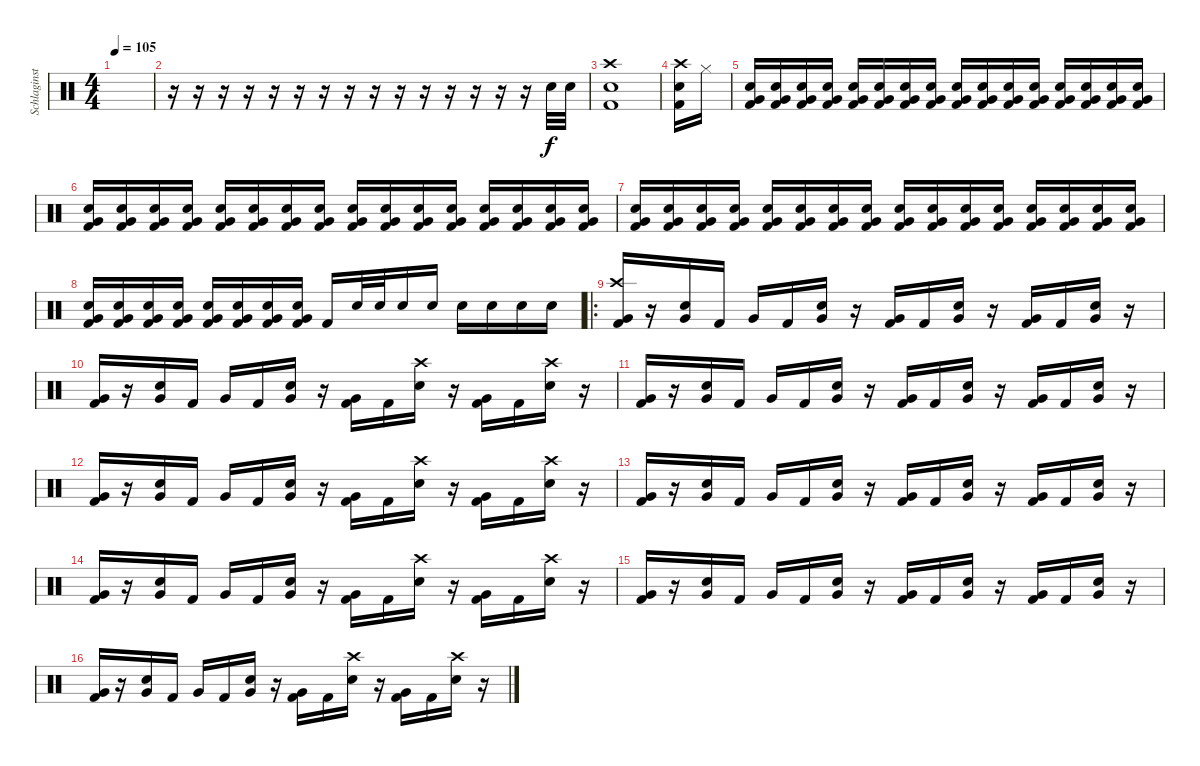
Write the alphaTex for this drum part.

\track ("Schlaginstrumente - Auswahl" "Schlaginst") {instrument percussion}
\staff {score}
\articulation defaults
\ts (4 4)
\tempo 105
\clef neutral
\ks c
|
r.16 r.16 r.16 r.16 r.16 r.16 r.16 r.16 r.16 r.16 r.16 r.16 r.16 r.16 r.16 "Electric Snare (hit)".32 "Electric Snare (hit)".32 |
("Kick (hit) 2" "Crash high (hit)" "Electric Snare (hit)").1 |
("Crash high (hit)" "Kick (hit) 2" "Electric Snare (hit)").16 "Hi-Hat (closed)".16 |
("Electric Snare (hit)" "Kick (hit) 2" "Very Low Tom (hit)").16 ("Electric Snare (hit)" "Kick (hit) 2" "Very Low Tom (hit)").16 ("Electric Snare (hit)" "Kick (hit) 2" "Very Low Tom (hit)").16 ("Electric Snare (hit)" "Kick (hit) 2" "Very Low Tom (hit)").16 ("Electric Snare (hit)" "Kick (hit) 2" "Very Low Tom (hit)").16 ("Electric Snare (hit)" "Kick (hit) 2" "Very Low Tom (hit)").16 ("Electric Snare (hit)" "Kick (hit) 2" "Very Low Tom (hit)").16 ("Electric Snare (hit)" "Kick (hit) 2" "Very Low Tom (hit)").16 ("Electric Snare (hit)" "Kick (hit) 2" "Very Low Tom (hit)").16 ("Electric Snare (hit)" "Kick (hit) 2" "Very Low Tom (hit)").16 ("Electric Snare (hit)" "Kick (hit) 2" "Very Low Tom (hit)").16 ("Electric Snare (hit)" "Kick (hit) 2" "Very Low Tom (hit)").16 ("Electric Snare (hit)" "Kick (hit) 2" "Very Low Tom (hit)").16 ("Electric Snare (hit)" "Kick (hit) 2" "Very Low Tom (hit)").16 ("Electric Snare (hit)" "Kick (hit) 2" "Very Low Tom (hit)").16 ("Electric Snare (hit)" "Kick (hit) 2" "Very Low Tom (hit)").16 |
("Electric Snare (hit)" "Kick (hit) 2" "Very Low Tom (hit)").16 ("Electric Snare (hit)" "Kick (hit) 2" "Very Low Tom (hit)").16 ("Electric Snare (hit)" "Kick (hit) 2" "Very Low Tom (hit)").16 ("Electric Snare (hit)" "Kick (hit) 2" "Very Low Tom (hit)").16 ("Electric Snare (hit)" "Kick (hit) 2" "Very Low Tom (hit)").16 ("Electric Snare (hit)" "Kick (hit) 2" "Very Low Tom (hit)").16 ("Electric Snare (hit)" "Kick (hit) 2" "Very Low Tom (hit)").16 ("Electric Snare (hit)" "Kick (hit) 2" "Very Low Tom (hit)").16 ("Electric Snare (hit)" "Kick (hit) 2" "Very Low Tom (hit)").16 ("Electric Snare (hit)" "Kick (hit) 2" "Very Low Tom (hit)").16 ("Electric Snare (hit)" "Kick (hit) 2" "Very Low Tom (hit)").16 ("Electric Snare (hit)" "Kick (hit) 2" "Very Low Tom (hit)").16 ("Electric Snare (hit)" "Kick (hit) 2" "Very Low Tom (hit)").16 ("Electric Snare (hit)" "Kick (hit) 2" "Very Low Tom (hit)").16 ("Electric Snare (hit)" "Kick (hit) 2" "Very Low Tom (hit)").16 ("Electric Snare (hit)" "Kick (hit) 2" "Very Low Tom (hit)").16 |
("Electric Snare (hit)" "Kick (hit) 2" "Very Low Tom (hit)").16 ("Electric Snare (hit)" "Kick (hit) 2" "Very Low Tom (hit)").16 ("Electric Snare (hit)" "Kick (hit) 2" "Very Low Tom (hit)").16 ("Electric Snare (hit)" "Kick (hit) 2" "Very Low Tom (hit)").16 ("Electric Snare (hit)" "Kick (hit) 2" "Very Low Tom (hit)").16 ("Electric Snare (hit)" "Kick (hit) 2" "Very Low Tom (hit)").16 ("Electric Snare (hit)" "Kick (hit) 2" "Very Low Tom (hit)").16 ("Electric Snare (hit)" "Kick (hit) 2" "Very Low Tom (hit)").16 ("Electric Snare (hit)" "Kick (hit) 2" "Very Low Tom (hit)").16 ("Electric Snare (hit)" "Kick (hit) 2" "Very Low Tom (hit)").16 ("Electric Snare (hit)" "Kick (hit) 2" "Very Low Tom (hit)").16 ("Electric Snare (hit)" "Kick (hit) 2" "Very Low Tom (hit)").16 ("Electric Snare (hit)" "Kick (hit) 2" "Very Low Tom (hit)").16 ("Electric Snare (hit)" "Kick (hit) 2" "Very Low Tom (hit)").16 ("Electric Snare (hit)" "Kick (hit) 2" "Very Low Tom (hit)").16 ("Electric Snare (hit)" "Kick (hit) 2" "Very Low Tom (hit)").16 |
("Electric Snare (hit)" "Kick (hit) 2" "Very Low Tom (hit)").16 ("Electric Snare (hit)" "Kick (hit) 2" "Very Low Tom (hit)").16 ("Electric Snare (hit)" "Kick (hit) 2" "Very Low Tom (hit)").16 ("Electric Snare (hit)" "Kick (hit) 2" "Very Low Tom (hit)").16 ("Electric Snare (hit)" "Kick (hit) 2" "Very Low Tom (hit)").16 ("Electric Snare (hit)" "Kick (hit) 2" "Very Low Tom (hit)").16 ("Electric Snare (hit)" "Kick (hit) 2" "Very Low Tom (hit)").16 ("Electric Snare (hit)" "Kick (hit) 2" "Very Low Tom (hit)").16 "Kick (hit) 2".16 "Electric Snare (hit)".32 "Electric Snare (hit)".32 "Electric Snare (hit)".16 "Electric Snare (hit)".16 "Electric Snare (hit)".16 "Electric Snare (hit)".16 "Electric Snare (hit)".16 "Electric Snare (hit)".16 |
\ro
("Crash high (hit)" "Very Low Tom (hit)" "Kick (hit) 2").16 r.16 ("Very Low Tom (hit)" "Electric Snare (hit)").16 "Kick (hit) 2".16 "Very Low Tom (hit)".16 "Kick (hit) 2".16 ("Very Low Tom (hit)" "Electric Snare (hit)").16 r.16 ("Very Low Tom (hit)" "Kick (hit) 2").16 "Kick (hit) 2".16 ("Very Low Tom (hit)" "Electric Snare (hit)").16 r.16 ("Very Low Tom (hit)" "Kick (hit) 2").16 "Kick (hit) 2".16 ("Very Low Tom (hit)" "Electric Snare (hit)").16 r.16 |
("Very Low Tom (hit)" "Kick (hit) 2").16 r.16 ("Very Low Tom (hit)" "Electric Snare (hit)").16 "Kick (hit) 2".16 "Very Low Tom (hit)".16 "Kick (hit) 2".16 ("Very Low Tom (hit)" "Electric Snare (hit)").16 r.16 ("Very Low Tom (hit)" "Kick (hit) 2").16 "Kick (hit) 2".16 ("Crash high (hit)" "Electric Snare (hit)").16 r.16 ("Very Low Tom (hit)" "Kick (hit) 2").16 "Kick (hit) 2".16 ("Crash high (hit)" "Electric Snare (hit)").16 r.16 |
("Very Low Tom (hit)" "Kick (hit) 2").16 r.16 ("Very Low Tom (hit)" "Electric Snare (hit)").16 "Kick (hit) 2".16 "Very Low Tom (hit)".16 "Kick (hit) 2".16 ("Very Low Tom (hit)" "Electric Snare (hit)").16 r.16 ("Very Low Tom (hit)" "Kick (hit) 2").16 "Kick (hit) 2".16 ("Very Low Tom (hit)" "Electric Snare (hit)").16 r.16 ("Very Low Tom (hit)" "Kick (hit) 2").16 "Kick (hit) 2".16 ("Very Low Tom (hit)" "Electric Snare (hit)").16 r.16 |
("Very Low Tom (hit)" "Kick (hit) 2").16 r.16 ("Very Low Tom (hit)" "Electric Snare (hit)").16 "Kick (hit) 2".16 "Very Low Tom (hit)".16 "Kick (hit) 2".16 ("Very Low Tom (hit)" "Electric Snare (hit)").16 r.16 ("Very Low Tom (hit)" "Kick (hit) 2").16 "Kick (hit) 2".16 ("Crash high (hit)" "Electric Snare (hit)").16 r.16 ("Very Low Tom (hit)" "Kick (hit) 2").16 "Kick (hit) 2".16 ("Crash high (hit)" "Electric Snare (hit)").16 r.16 |
("Very Low Tom (hit)" "Kick (hit) 2").16 r.16 ("Very Low Tom (hit)" "Electric Snare (hit)").16 "Kick (hit) 2".16 "Very Low Tom (hit)".16 "Kick (hit) 2".16 ("Very Low Tom (hit)" "Electric Snare (hit)").16 r.16 ("Very Low Tom (hit)" "Kick (hit) 2").16 "Kick (hit) 2".16 ("Very Low Tom (hit)" "Electric Snare (hit)").16 r.16 ("Very Low Tom (hit)" "Kick (hit) 2").16 "Kick (hit) 2".16 ("Very Low Tom (hit)" "Electric Snare (hit)").16 r.16 |
("Very Low Tom (hit)" "Kick (hit) 2").16 r.16 ("Very Low Tom (hit)" "Electric Snare (hit)").16 "Kick (hit) 2".16 "Very Low Tom (hit)".16 "Kick (hit) 2".16 ("Very Low Tom (hit)" "Electric Snare (hit)").16 r.16 ("Very Low Tom (hit)" "Kick (hit) 2").16 "Kick (hit) 2".16 ("Crash high (hit)" "Electric Snare (hit)").16 r.16 ("Very Low Tom (hit)" "Kick (hit) 2").16 "Kick (hit) 2".16 ("Crash high (hit)" "Electric Snare (hit)").16 r.16 |
("Very Low Tom (hit)" "Kick (hit) 2").16 r.16 ("Very Low Tom (hit)" "Electric Snare (hit)").16 "Kick (hit) 2".16 "Very Low Tom (hit)".16 "Kick (hit) 2".16 ("Very Low Tom (hit)" "Electric Snare (hit)").16 r.16 ("Very Low Tom (hit)" "Kick (hit) 2").16 "Kick (hit) 2".16 ("Very Low Tom (hit)" "Electric Snare (hit)").16 r.16 ("Very Low Tom (hit)" "Kick (hit) 2").16 "Kick (hit) 2".16 ("Very Low Tom (hit)" "Electric Snare (hit)").16 r.16 |
("Very Low Tom (hit)" "Kick (hit) 2").16 r.16 ("Very Low Tom (hit)" "Electric Snare (hit)").16 "Kick (hit) 2".16 "Very Low Tom (hit)".16 "Kick (hit) 2".16 ("Very Low Tom (hit)" "Electric Snare (hit)").16 r.16 ("Very Low Tom (hit)" "Kick (hit) 2").16 "Kick (hit) 2".16 ("Crash high (hit)" "Electric Snare (hit)").16 r.16 ("Very Low Tom (hit)" "Kick (hit) 2").16 "Kick (hit) 2".16 ("Crash high (hit)" "Electric Snare (hit)").16 r.16
